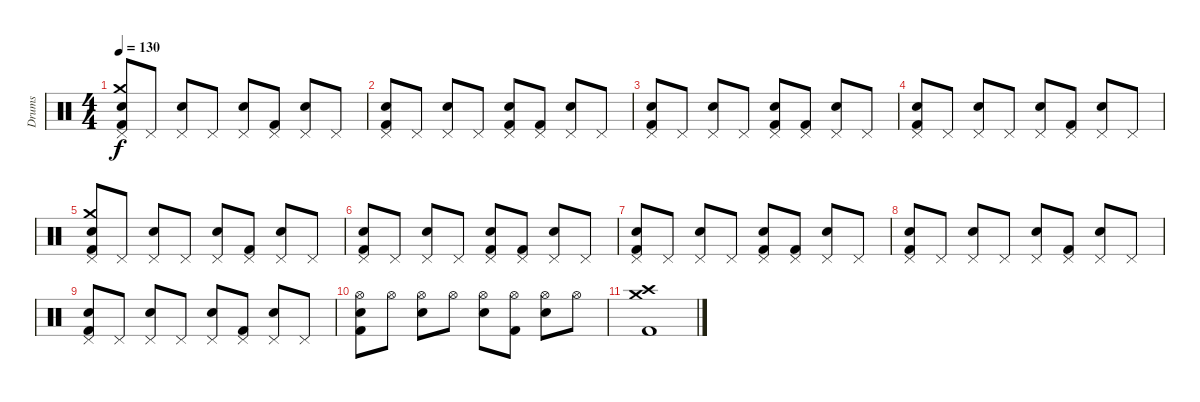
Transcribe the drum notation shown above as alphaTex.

\track ("Drums" "Drums") {instrument percussion}
\staff {score}
\articulation defaults
\ts (4 4)
\tempo 130
\clef neutral
\ks c
("Kick (hit) 2" "Crash medium (hit)" "Pedal Hi-Hat (hit)" "Electric Snare (hit)").8{dy f} "Pedal Hi-Hat (hit)".8 ("Electric Snare (hit)" "Pedal Hi-Hat (hit)").8 "Pedal Hi-Hat (hit)".8 ("Pedal Hi-Hat (hit)" "Electric Snare (hit)").8 ("Kick (hit) 2" "Pedal Hi-Hat (hit)").8 ("Electric Snare (hit)" "Pedal Hi-Hat (hit)").8 "Pedal Hi-Hat (hit)".8 |
("Kick (hit) 2" "Pedal Hi-Hat (hit)" "Electric Snare (hit)").8 "Pedal Hi-Hat (hit)".8 ("Electric Snare (hit)" "Pedal Hi-Hat (hit)").8 "Pedal Hi-Hat (hit)".8 ("Kick (hit) 2" "Pedal Hi-Hat (hit)" "Electric Snare (hit)").8 ("Kick (hit) 2" "Pedal Hi-Hat (hit)").8 ("Electric Snare (hit)" "Pedal Hi-Hat (hit)").8 "Pedal Hi-Hat (hit)".8 |
("Kick (hit) 2" "Pedal Hi-Hat (hit)" "Electric Snare (hit)").8 "Pedal Hi-Hat (hit)".8 ("Electric Snare (hit)" "Pedal Hi-Hat (hit)").8 "Pedal Hi-Hat (hit)".8 ("Kick (hit) 2" "Pedal Hi-Hat (hit)" "Electric Snare (hit)").8 ("Kick (hit) 2" "Pedal Hi-Hat (hit)").8 ("Electric Snare (hit)" "Pedal Hi-Hat (hit)").8 "Pedal Hi-Hat (hit)".8 |
("Kick (hit) 2" "Pedal Hi-Hat (hit)" "Electric Snare (hit)").8 "Pedal Hi-Hat (hit)".8 ("Electric Snare (hit)" "Pedal Hi-Hat (hit)").8 "Pedal Hi-Hat (hit)".8 ("Pedal Hi-Hat (hit)" "Electric Snare (hit)").8 ("Kick (hit) 2" "Pedal Hi-Hat (hit)").8 ("Electric Snare (hit)" "Pedal Hi-Hat (hit)").8 "Pedal Hi-Hat (hit)".8 |
("Kick (hit) 2" "Crash medium (hit)" "Pedal Hi-Hat (hit)" "Electric Snare (hit)").8 "Pedal Hi-Hat (hit)".8 ("Electric Snare (hit)" "Pedal Hi-Hat (hit)").8 "Pedal Hi-Hat (hit)".8 ("Pedal Hi-Hat (hit)" "Electric Snare (hit)").8 ("Kick (hit) 2" "Pedal Hi-Hat (hit)").8 ("Electric Snare (hit)" "Pedal Hi-Hat (hit)").8 "Pedal Hi-Hat (hit)".8 |
("Kick (hit) 2" "Pedal Hi-Hat (hit)" "Electric Snare (hit)").8 "Pedal Hi-Hat (hit)".8 ("Electric Snare (hit)" "Pedal Hi-Hat (hit)").8 "Pedal Hi-Hat (hit)".8 ("Kick (hit) 2" "Pedal Hi-Hat (hit)" "Electric Snare (hit)").8 ("Kick (hit) 2" "Pedal Hi-Hat (hit)").8 ("Electric Snare (hit)" "Pedal Hi-Hat (hit)").8 "Pedal Hi-Hat (hit)".8 |
("Kick (hit) 2" "Pedal Hi-Hat (hit)" "Electric Snare (hit)").8 "Pedal Hi-Hat (hit)".8 ("Electric Snare (hit)" "Pedal Hi-Hat (hit)").8 "Pedal Hi-Hat (hit)".8 ("Kick (hit) 2" "Pedal Hi-Hat (hit)" "Electric Snare (hit)").8 ("Kick (hit) 2" "Pedal Hi-Hat (hit)").8 ("Electric Snare (hit)" "Pedal Hi-Hat (hit)").8 "Pedal Hi-Hat (hit)".8 |
("Kick (hit) 2" "Pedal Hi-Hat (hit)" "Electric Snare (hit)").8 "Pedal Hi-Hat (hit)".8 ("Electric Snare (hit)" "Pedal Hi-Hat (hit)").8 "Pedal Hi-Hat (hit)".8 ("Pedal Hi-Hat (hit)" "Electric Snare (hit)").8 ("Kick (hit) 2" "Pedal Hi-Hat (hit)").8 ("Electric Snare (hit)" "Pedal Hi-Hat (hit)").8 "Pedal Hi-Hat (hit)".8 |
("Kick (hit) 2" "Pedal Hi-Hat (hit)" "Electric Snare (hit)").8 "Pedal Hi-Hat (hit)".8 ("Electric Snare (hit)" "Pedal Hi-Hat (hit)").8 "Pedal Hi-Hat (hit)".8 ("Pedal Hi-Hat (hit)" "Electric Snare (hit)").8 ("Kick (hit) 2" "Pedal Hi-Hat (hit)").8 ("Electric Snare (hit)" "Pedal Hi-Hat (hit)").8 "Pedal Hi-Hat (hit)".8 |
("Kick (hit) 2" "Hi-Hat (open)" "Electric Snare (hit)").8 "Hi-Hat (open)".8 ("Electric Snare (hit)" "Hi-Hat (open)").8 "Hi-Hat (open)".8 ("Hi-Hat (open)" "Electric Snare (hit)").8 ("Kick (hit) 2" "Hi-Hat (open)").8 ("Electric Snare (hit)" "Hi-Hat (open)").8 "Hi-Hat (open)".8 |
("Crash high (hit)" "Crash medium (hit)" "Kick (hit) 2").1
